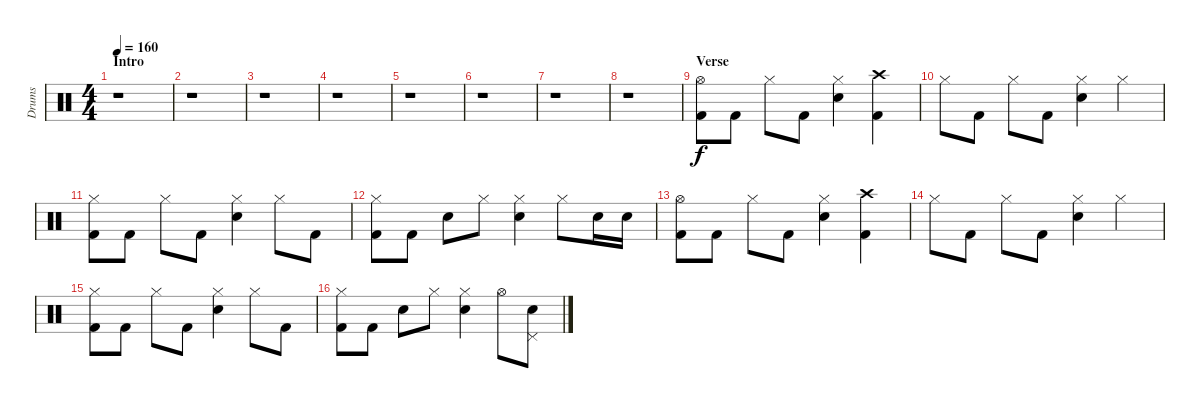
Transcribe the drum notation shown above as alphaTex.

\track ("Drums" "Drums") {instrument percussion}
\staff {score}
\articulation defaults
\ts (4 4)
\section ("" "Intro")
\tempo 160
\clef neutral
\ks c
r.1{dy f} |
r.1 |
r.1 |
r.1 |
r.1 |
r.1 |
r.1 |
r.1 |
\section ("" "Verse")
("Kick (hit) 2" "Hi-Hat (open)").8 "Kick (hit) 2".8 "Hi-Hat (closed)".8 "Kick (hit) 2".8 ("Electric Snare (hit)" "Hi-Hat (closed)").4 ("Kick (hit) 2" "Crash high (hit)").4 |
"Hi-Hat (closed)".8 "Kick (hit) 2".8 "Hi-Hat (closed)".8 "Kick (hit) 2".8 ("Electric Snare (hit)" "Hi-Hat (closed)").4 "Hi-Hat (closed)".4 |
("Kick (hit) 2" "Hi-Hat (closed)").8 "Kick (hit) 2".8 "Hi-Hat (closed)".8 "Kick (hit) 2".8 ("Electric Snare (hit)" "Hi-Hat (closed)").4 "Hi-Hat (closed)".8 "Kick (hit) 2".8 |
("Kick (hit) 2" "Hi-Hat (closed)").8 "Kick (hit) 2".8 "Electric Snare (hit)".8 "Hi-Hat (closed)".8 ("Electric Snare (hit)" "Hi-Hat (closed)").4 "Hi-Hat (closed)".8 "Electric Snare (hit)".16 "Electric Snare (hit)".16 |
("Kick (hit) 2" "Hi-Hat (open)").8 "Kick (hit) 2".8 "Hi-Hat (closed)".8 "Kick (hit) 2".8 ("Electric Snare (hit)" "Hi-Hat (closed)").4 ("Kick (hit) 2" "Crash high (hit)").4 |
"Hi-Hat (closed)".8 "Kick (hit) 2".8 "Hi-Hat (closed)".8 "Kick (hit) 2".8 ("Electric Snare (hit)" "Hi-Hat (closed)").4 "Hi-Hat (closed)".4 |
("Kick (hit) 2" "Hi-Hat (closed)").8 "Kick (hit) 2".8 "Hi-Hat (closed)".8 "Kick (hit) 2".8 ("Electric Snare (hit)" "Hi-Hat (closed)").4 "Hi-Hat (closed)".8 "Kick (hit) 2".8 |
("Kick (hit) 2" "Hi-Hat (closed)").8 "Kick (hit) 2".8 "Electric Snare (hit)".8 "Hi-Hat (closed)".8 ("Electric Snare (hit)" "Hi-Hat (closed)").4 "Hi-Hat (open)".8 ("Electric Snare (hit)" "Pedal Hi-Hat (hit)").8
